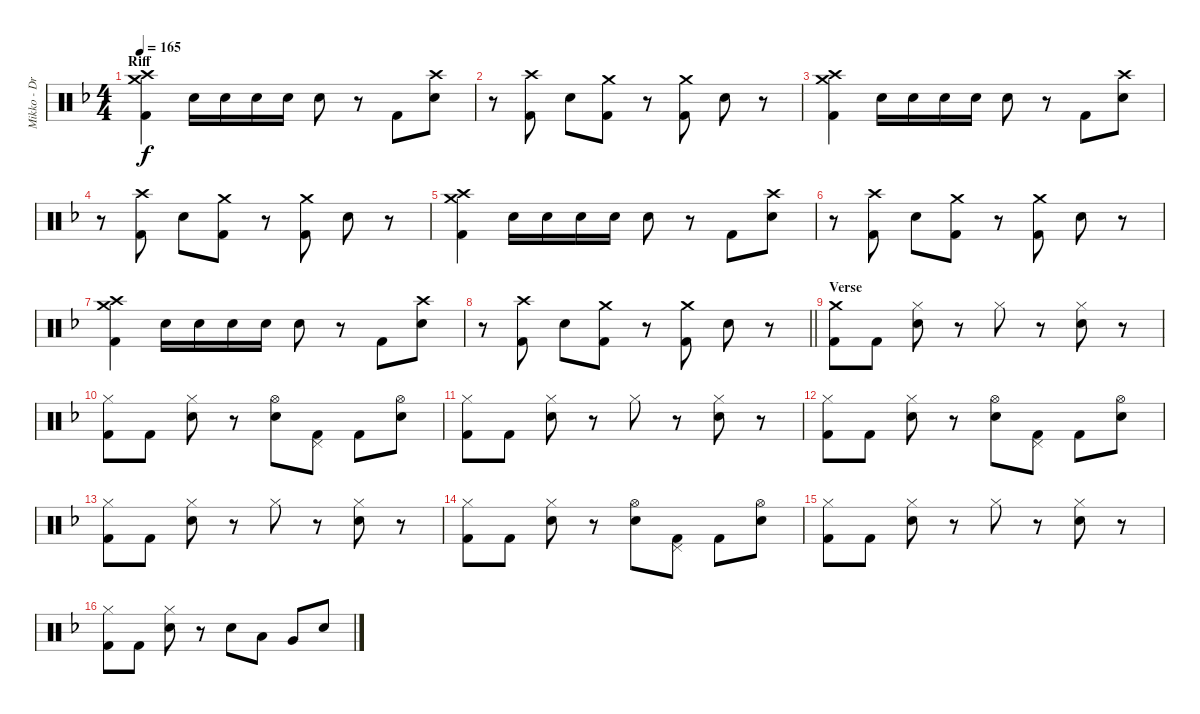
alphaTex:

\track ("Mikko - Drums" "Mikko - Dr") {instrument percussion}
\staff {score}
\articulation defaults
\ts (4 4)
\section ("" "Riff")
\tempo 165
\clef neutral
\ks dminor
("Crash medium (hit)" "Crash high (hit)" "Kick (hit) 2").4{dy f} "Snare (hit) 2".16 "Snare (hit) 2".16 "Snare (hit) 2".16 "Snare (hit) 2".16 "Snare (hit) 2".8 r.8 "Kick (hit) 2".8 ("Crash high (hit)" "Snare (hit) 2").8 |
r.8 ("Crash high (hit)" "Kick (hit) 2").8 "Snare (hit) 2".8 ("Crash medium (hit)" "Kick (hit) 2").8 r.8 ("Crash medium (hit)" "Kick (hit) 2").8 "Snare (hit) 2".8 r.8 |
("Crash medium (hit)" "Crash high (hit)" "Kick (hit) 2").4 "Snare (hit) 2".16 "Snare (hit) 2".16 "Snare (hit) 2".16 "Snare (hit) 2".16 "Snare (hit) 2".8 r.8 "Kick (hit) 2".8 ("Crash high (hit)" "Snare (hit) 2").8 |
r.8 ("Crash high (hit)" "Kick (hit) 2").8 "Snare (hit) 2".8 ("Crash medium (hit)" "Kick (hit) 2").8 r.8 ("Crash medium (hit)" "Kick (hit) 2").8 "Snare (hit) 2".8 r.8 |
("Crash medium (hit)" "Crash high (hit)" "Kick (hit) 2").4 "Snare (hit) 2".16 "Snare (hit) 2".16 "Snare (hit) 2".16 "Snare (hit) 2".16 "Snare (hit) 2".8 r.8 "Kick (hit) 2".8 ("Crash high (hit)" "Snare (hit) 2").8 |
r.8 ("Crash high (hit)" "Kick (hit) 2").8 "Snare (hit) 2".8 ("Crash medium (hit)" "Kick (hit) 2").8 r.8 ("Crash medium (hit)" "Kick (hit) 2").8 "Snare (hit) 2".8 r.8 |
("Crash medium (hit)" "Crash high (hit)" "Kick (hit) 2").4 "Snare (hit) 2".16 "Snare (hit) 2".16 "Snare (hit) 2".16 "Snare (hit) 2".16 "Snare (hit) 2".8 r.8 "Kick (hit) 2".8 ("Crash high (hit)" "Snare (hit) 2").8 |
\barLineRight lightlight
r.8 ("Crash high (hit)" "Kick (hit) 2").8 "Snare (hit) 2".8 ("Crash medium (hit)" "Kick (hit) 2").8 r.8 ("Crash medium (hit)" "Kick (hit) 2").8 "Snare (hit) 2".8 r.8 |
\section ("" "Verse")
("Crash medium (hit)" "Kick (hit) 2").8 "Kick (hit) 2".8 ("Hi-Hat (closed)" "Snare (hit) 2").8 r.8 "Hi-Hat (closed)".8 r.8 ("Hi-Hat (closed)" "Snare (hit) 2").8 r.8 |
("Hi-Hat (closed)" "Kick (hit) 2").8 "Kick (hit) 2".8 ("Hi-Hat (closed)" "Snare (hit) 2").8 r.8 ("Hi-Hat (open)" "Snare (hit) 2").8 ("Pedal Hi-Hat (hit)" "Kick (hit) 2").8 "Kick (hit) 2".8 ("Hi-Hat (open)" "Snare (hit) 2").8 |
("Hi-Hat (closed)" "Kick (hit) 2").8 "Kick (hit) 2".8 ("Hi-Hat (closed)" "Snare (hit) 2").8 r.8 "Hi-Hat (closed)".8 r.8 ("Hi-Hat (closed)" "Snare (hit) 2").8 r.8 |
("Hi-Hat (closed)" "Kick (hit) 2").8 "Kick (hit) 2".8 ("Hi-Hat (closed)" "Snare (hit) 2").8 r.8 ("Hi-Hat (open)" "Snare (hit) 2").8 ("Pedal Hi-Hat (hit)" "Kick (hit) 2").8 "Kick (hit) 2".8 ("Hi-Hat (open)" "Snare (hit) 2").8 |
("Hi-Hat (closed)" "Kick (hit) 2").8 "Kick (hit) 2".8 ("Hi-Hat (closed)" "Snare (hit) 2").8 r.8 "Hi-Hat (closed)".8 r.8 ("Hi-Hat (closed)" "Snare (hit) 2").8 r.8 |
("Hi-Hat (closed)" "Kick (hit) 2").8 "Kick (hit) 2".8 ("Hi-Hat (closed)" "Snare (hit) 2").8 r.8 ("Hi-Hat (open)" "Snare (hit) 2").8 ("Pedal Hi-Hat (hit)" "Kick (hit) 2").8 "Kick (hit) 2".8 ("Hi-Hat (open)" "Snare (hit) 2").8 |
("Hi-Hat (closed)" "Kick (hit) 2").8 "Kick (hit) 2".8 ("Hi-Hat (closed)" "Snare (hit) 2").8 r.8 "Hi-Hat (closed)".8 r.8 ("Hi-Hat (closed)" "Snare (hit) 2").8 r.8 |
("Hi-Hat (closed)" "Kick (hit) 2").8 "Kick (hit) 2".8 ("Hi-Hat (closed)" "Snare (hit) 2").8 r.8 "Snare (hit) 2".8 "Low Tom (hit)".8 "Very Low Tom (hit)".8 "Snare (hit) 2".8
